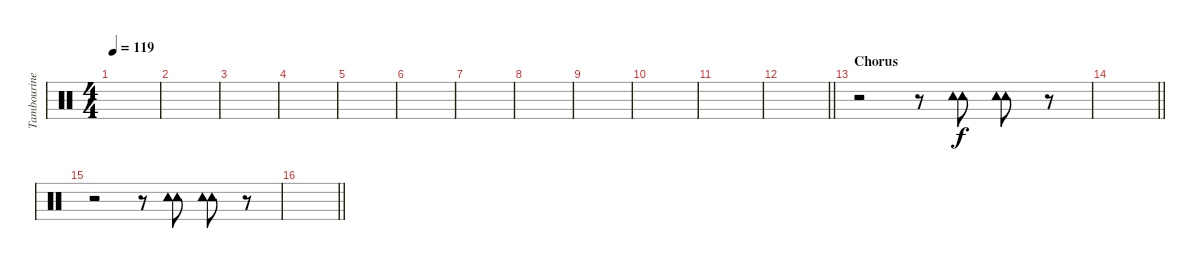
\track ("Tambourine (John Lennon)" "Tambourine") {instrument percussion}
\staff {score}
\articulation defaults
\ts (4 4)
\tempo 119
\clef neutral
\ks c
|
|
|
|
|
|
|
|
|
|
|
\barLineRight lightlight
|
\section ("" "Chorus")
r.2 r.8 ("Tambourine (hit)" "Tambourine (hit)").8{bd 60} ("Tambourine (hit)" "Tambourine (hit)").8{bd 60} r.8 |
\barLineRight lightlight
|
r.2 r.8 ("Tambourine (hit)" "Tambourine (hit)").8{bd 60} ("Tambourine (hit)" "Tambourine (hit)").8{bd 60} r.8 |
\barLineRight lightlight
